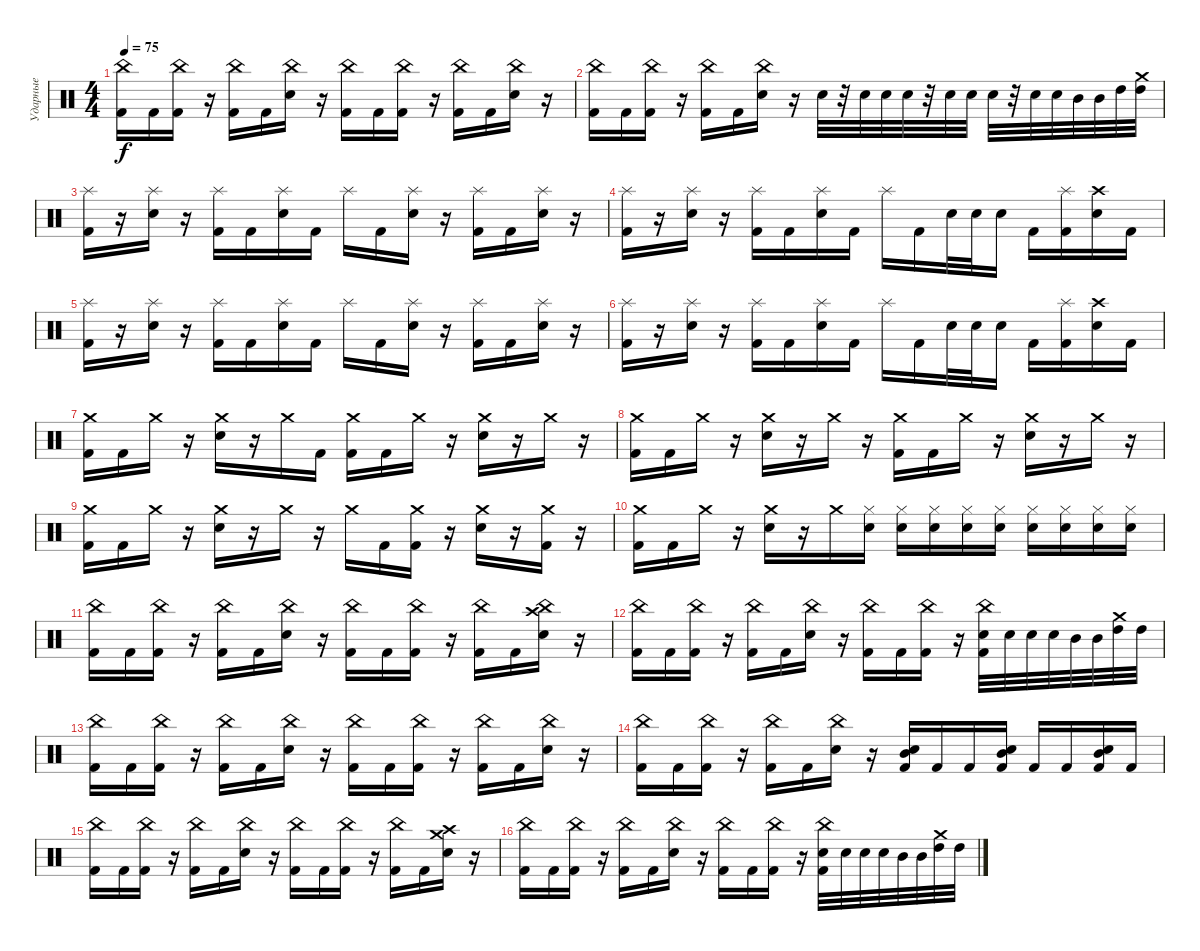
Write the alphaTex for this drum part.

\track ("Ударные" "Ударные") {instrument percussion}
\staff {score}
\articulation defaults
\ts (4 4)
\tempo 75
\clef neutral
\ks c
("Kick (hit) 2" "China (hit)").16{dy f} "Kick (hit) 2".16 ("Kick (hit) 2" "China (hit)").16 r.16 ("Kick (hit) 2" "China (hit)").16 "Kick (hit) 2".16 ("Electric Snare (hit)" "China (hit)").16 r.16 ("Kick (hit) 2" "China (hit)").16 "Kick (hit) 2".16 ("Kick (hit) 2" "China (hit)").16 r.16 ("Kick (hit) 2" "China (hit)").16 "Kick (hit) 2".16 ("Electric Snare (hit)" "China (hit)").16 r.16 |
("Kick (hit) 2" "China (hit)").16 "Kick (hit) 2".16 ("Kick (hit) 2" "China (hit)").16 r.16 ("Kick (hit) 2" "China (hit)").16 "Kick (hit) 2".16 ("Electric Snare (hit)" "China (hit)").16 r.16 "Electric Snare (hit)".32 r.32 "Electric Snare (hit)".32 "Electric Snare (hit)".32 "Electric Snare (hit)".32 r.32 "Electric Snare (hit)".32 "Electric Snare (hit)".32 "Electric Snare (hit)".32 r.32 "Electric Snare (hit)".32 "Electric Snare (hit)".32 "Mid Tom (hit)".32 "Mid Tom (hit)".32 "High Tom (hit)".32 ("High Tom (hit)" "Crash medium (hit)").32 |
("Kick (hit) 2" "Splash (hit)").16 r.16 ("Electric Snare (hit)" "Splash (hit)").16 r.16 ("Kick (hit) 2" "Splash (hit)").16 "Kick (hit) 2".16 ("Electric Snare (hit)" "Splash (hit)").16 "Kick (hit) 2".16 "Splash (hit)".16 "Kick (hit) 2".16 ("Electric Snare (hit)" "Splash (hit)").16 r.16 ("Kick (hit) 2" "Splash (hit)").16 "Kick (hit) 2".16 ("Electric Snare (hit)" "Splash (hit)").16 r.16 |
("Kick (hit) 2" "Splash (hit)").16 r.16 ("Electric Snare (hit)" "Splash (hit)").16 r.16 ("Kick (hit) 2" "Splash (hit)").16 "Kick (hit) 2".16 ("Electric Snare (hit)" "Splash (hit)").16 "Kick (hit) 2".16 "Splash (hit)".16 "Kick (hit) 2".16 "Electric Snare (hit)".32 "Electric Snare (hit)".32 "Electric Snare (hit)".16 "Kick (hit) 2".16 ("Kick (hit) 2" "Splash (hit)").16 ("Electric Snare (hit)" "Crash high (hit)").16 "Kick (hit) 2".16 |
("Kick (hit) 2" "Splash (hit)").16 r.16 ("Electric Snare (hit)" "Splash (hit)").16 r.16 ("Kick (hit) 2" "Splash (hit)").16 "Kick (hit) 2".16 ("Electric Snare (hit)" "Splash (hit)").16 "Kick (hit) 2".16 "Splash (hit)".16 "Kick (hit) 2".16 ("Electric Snare (hit)" "Splash (hit)").16 r.16 ("Kick (hit) 2" "Splash (hit)").16 "Kick (hit) 2".16 ("Electric Snare (hit)" "Splash (hit)").16 r.16 |
("Kick (hit) 2" "Splash (hit)").16 r.16 ("Electric Snare (hit)" "Splash (hit)").16 r.16 ("Kick (hit) 2" "Splash (hit)").16 "Kick (hit) 2".16 ("Electric Snare (hit)" "Splash (hit)").16 "Kick (hit) 2".16 "Splash (hit)".16 "Kick (hit) 2".16 "Electric Snare (hit)".32 "Electric Snare (hit)".32 "Electric Snare (hit)".16 "Kick (hit) 2".16 ("Kick (hit) 2" "Splash (hit)").16 ("Electric Snare (hit)" "Crash high (hit)").16 "Kick (hit) 2".16 |
("Kick (hit) 2" "Crash medium (hit)").16 "Kick (hit) 2".16 "Crash medium (hit)".16 r.16 ("Electric Snare (hit)" "Crash medium (hit)").16 r.16 "Crash medium (hit)".16 "Kick (hit) 2".16 ("Kick (hit) 2" "Crash medium (hit)").16 "Kick (hit) 2".16 "Crash medium (hit)".16 r.16 ("Electric Snare (hit)" "Crash medium (hit)").16 r.16 "Crash medium (hit)".16 r.16 |
("Kick (hit) 2" "Crash medium (hit)").16 "Kick (hit) 2".16 "Crash medium (hit)".16 r.16 ("Electric Snare (hit)" "Crash medium (hit)").16 r.16 "Crash medium (hit)".16 r.16 ("Kick (hit) 2" "Crash medium (hit)").16 "Kick (hit) 2".16 "Crash medium (hit)".16 r.16 ("Electric Snare (hit)" "Crash medium (hit)").16 r.16 "Crash medium (hit)".16 r.16 |
("Kick (hit) 2" "Crash medium (hit)").16 "Kick (hit) 2".16 "Crash medium (hit)".16 r.16 ("Electric Snare (hit)" "Crash medium (hit)").16 r.16 "Crash medium (hit)".16 r.16 "Crash medium (hit)".16 "Kick (hit) 2".16 ("Kick (hit) 2" "Crash medium (hit)").16 r.16 ("Electric Snare (hit)" "Crash medium (hit)").16 r.16 ("Kick (hit) 2" "Crash medium (hit)").16 r.16 |
("Kick (hit) 2" "Crash medium (hit)").16 "Kick (hit) 2".16 "Crash medium (hit)".16 r.16 ("Electric Snare (hit)" "Crash medium (hit)").16 r.16 "Crash medium (hit)".16 ("Electric Snare (hit)" "Hi-Hat (closed)").16 ("Electric Snare (hit)" "Hi-Hat (closed)").16 ("Electric Snare (hit)" "Hi-Hat (closed)").16 ("Electric Snare (hit)" "Hi-Hat (closed)").16 ("Electric Snare (hit)" "Hi-Hat (closed)").16 ("Electric Snare (hit)" "Hi-Hat (closed)").16 ("Electric Snare (hit)" "Hi-Hat (closed)").16 ("Electric Snare (hit)" "Hi-Hat (closed)").16 ("Electric Snare (hit)" "Hi-Hat (closed)").16 |
("Kick (hit) 2" "China (hit)").16 "Kick (hit) 2".16 ("Kick (hit) 2" "China (hit)").16 r.16 ("Kick (hit) 2" "China (hit)").16 "Kick (hit) 2".16 ("Electric Snare (hit)" "China (hit)").16 r.16 ("Kick (hit) 2" "China (hit)").16 "Kick (hit) 2".16 ("Kick (hit) 2" "China (hit)").16 r.16 ("Kick (hit) 2" "China (hit)").16 "Kick (hit) 2".16 ("Electric Snare (hit)" "Crash high (hit)" "China (hit)").16 r.16 |
("Kick (hit) 2" "China (hit)").16 "Kick (hit) 2".16 ("Kick (hit) 2" "China (hit)").16 r.16 ("Kick (hit) 2" "China (hit)").16 "Kick (hit) 2".16 ("Electric Snare (hit)" "China (hit)").16 r.16 ("Kick (hit) 2" "China (hit)").16 "Kick (hit) 2".16 ("Kick (hit) 2" "China (hit)").16 r.16 ("Kick (hit) 2" "Electric Snare (hit)" "China (hit)").32 "Electric Snare (hit)".32 "Electric Snare (hit)".32 "Electric Snare (hit)".32 "Mid Tom (hit)".32 "Mid Tom (hit)".32 ("High Tom (hit)" "Crash medium (hit)").32 "High Tom (hit)".32 |
("Kick (hit) 2" "China (hit)").16 "Kick (hit) 2".16 ("Kick (hit) 2" "China (hit)").16 r.16 ("Kick (hit) 2" "China (hit)").16 "Kick (hit) 2".16 ("Electric Snare (hit)" "China (hit)").16 r.16 ("Kick (hit) 2" "China (hit)").16 "Kick (hit) 2".16 ("Kick (hit) 2" "China (hit)").16 r.16 ("Kick (hit) 2" "China (hit)").16 "Kick (hit) 2".16 ("Electric Snare (hit)" "China (hit)").16 r.16 |
("Kick (hit) 2" "China (hit)").16 "Kick (hit) 2".16 ("Kick (hit) 2" "China (hit)").16 r.16 ("Kick (hit) 2" "China (hit)").16 "Kick (hit) 2".16 ("Electric Snare (hit)" "China (hit)").16 r.16 ("Kick (hit) 2" "Electric Snare (hit)" "Mid Tom (hit)").16 "Kick (hit) 2".16 "Kick (hit) 2".16 ("Kick (hit) 2" "Electric Snare (hit)" "Mid Tom (hit)").16 "Kick (hit) 2".16 "Kick (hit) 2".16 ("Kick (hit) 2" "Electric Snare (hit)" "Mid Tom (hit)").16 "Kick (hit) 2".16 |
("Kick (hit) 2" "China (hit)").16 "Kick (hit) 2".16 ("Kick (hit) 2" "China (hit)").16 r.16 ("Kick (hit) 2" "China (hit)").16 "Kick (hit) 2".16 ("Electric Snare (hit)" "China (hit)").16 r.16 ("Kick (hit) 2" "China (hit)").16 "Kick (hit) 2".16 ("Kick (hit) 2" "China (hit)").16 r.16 ("Kick (hit) 2" "China (hit)").16 "Kick (hit) 2".16 ("Electric Snare (hit)" "Crash medium (hit)" "Crash high (hit)").16 r.16 |
("Kick (hit) 2" "China (hit)").16 "Kick (hit) 2".16 ("Kick (hit) 2" "China (hit)").16 r.16 ("Kick (hit) 2" "China (hit)").16 "Kick (hit) 2".16 ("Electric Snare (hit)" "China (hit)").16 r.16 ("Kick (hit) 2" "China (hit)").16 "Kick (hit) 2".16 ("Kick (hit) 2" "China (hit)").16 r.16 ("Kick (hit) 2" "Electric Snare (hit)" "China (hit)").32 "Electric Snare (hit)".32 "Electric Snare (hit)".32 "Electric Snare (hit)".32 "Mid Tom (hit)".32 "Mid Tom (hit)".32 ("High Tom (hit)" "Crash medium (hit)").32 "High Tom (hit)".32
